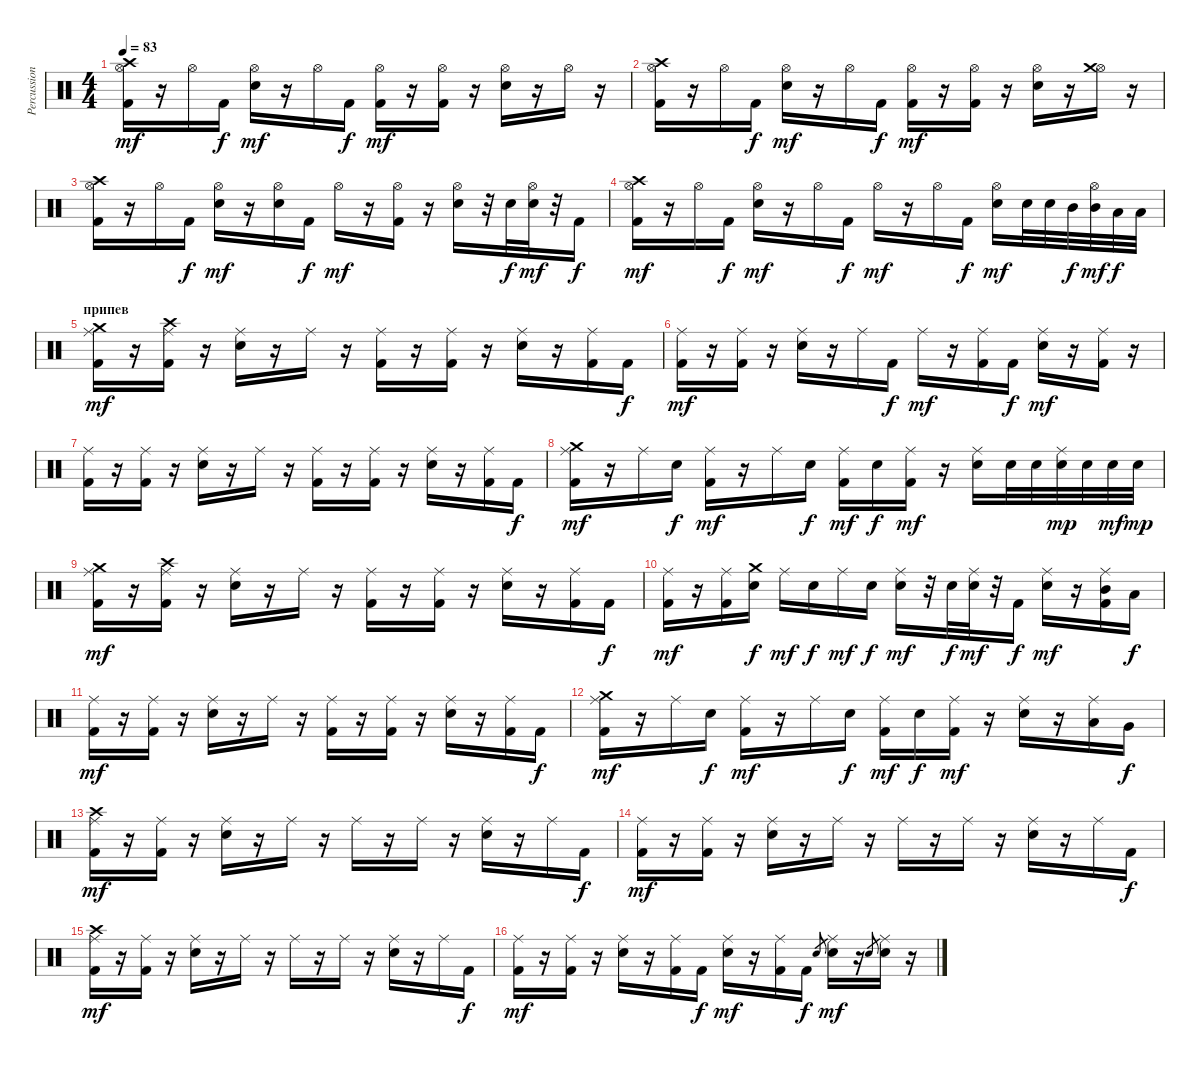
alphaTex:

\track ("Percussion" "Percussion") {instrument percussion}
\staff {score}
\articulation defaults
\ts (4 4)
\tempo 83
\clef neutral
\ks c
("Hi-Hat (open)" "Crash high (hit)" "Kick (hit) 2").16{dy mf} r.16 "Hi-Hat (open)".16 "Kick (hit) 2".16{dy f} ("Hi-Hat (open)" "Electric Snare (hit)").16{dy mf} r.16 "Hi-Hat (open)".16 "Kick (hit) 2".16{dy f} ("Hi-Hat (open)" "Kick (hit) 2").16{dy mf} r.16 ("Hi-Hat (open)" "Kick (hit) 2").16 r.16 ("Hi-Hat (open)" "Electric Snare (hit)").16 r.16 "Hi-Hat (open)".16 r.16 |
("Hi-Hat (open)" "Crash high (hit)" "Kick (hit) 2").16 r.16 "Hi-Hat (open)".16 "Kick (hit) 2".16{dy f} ("Hi-Hat (open)" "Electric Snare (hit)").16{dy mf} r.16 "Hi-Hat (open)".16 "Kick (hit) 2".16{dy f} ("Hi-Hat (open)" "Kick (hit) 2").16{dy mf} r.16 ("Hi-Hat (open)" "Kick (hit) 2").16 r.16 ("Hi-Hat (open)" "Electric Snare (hit)").16 r.16 ("Hi-Hat (open)" "Crash medium (hit)").16 r.16 |
("Hi-Hat (open)" "Crash high (hit)" "Kick (hit) 2").16 r.16 "Hi-Hat (open)".16 "Kick (hit) 2".16{dy f} ("Hi-Hat (open)" "Electric Snare (hit)").16{dy mf} r.16 ("Hi-Hat (open)" "Electric Snare (hit)").16 "Kick (hit) 2".16{dy f} "Hi-Hat (open)".16{dy mf} r.16 ("Hi-Hat (open)" "Kick (hit) 2").16 r.16 ("Hi-Hat (open)" "Electric Snare (hit)").16 r.32 "Electric Snare (hit)".32{dy f} ("Hi-Hat (open)" "Electric Snare (hit)").32{dy mf} r.32 "Kick (hit) 2".16{dy f} |
("Hi-Hat (open)" "Crash high (hit)" "Kick (hit) 2").16{dy mf} r.16 "Hi-Hat (open)".16 "Kick (hit) 2".16{dy f} ("Hi-Hat (open)" "Electric Snare (hit)").16{dy mf} r.16 "Hi-Hat (open)".16 "Kick (hit) 2".16{dy f} "Hi-Hat (open)".16{dy mf} r.16 "Hi-Hat (open)".16 "Kick (hit) 2".16{dy f} ("Hi-Hat (open)" "Electric Snare (hit)").16{dy mf} "Electric Snare (hit)".32 "Electric Snare (hit)".32 "Mid Tom (hit)".32{dy f} ("Hi-Hat (open)" "Mid Tom (hit)").32{dy mf} "Low Tom (hit)".32{dy f} "Low Tom (hit)".32 |
\section ("" "припев")
("Ride (middle)" "Crash medium (hit)" "Kick (hit) 2").16{dy mf} r.16 ("Ride (middle)" "Crash high (hit)" "Kick (hit) 2").16 r.16 ("Ride (middle)" "Electric Snare (hit)").16 r.16 "Ride (middle)".16 r.16 ("Ride (middle)" "Kick (hit) 2").16 r.16 ("Ride (middle)" "Kick (hit) 2").16 r.16 ("Ride (middle)" "Electric Snare (hit)").16 r.16 ("Ride (middle)" "Kick (hit) 2").16 "Kick (hit) 2".16{dy f} |
("Ride (middle)" "Kick (hit) 2").16{dy mf} r.16 ("Ride (middle)" "Kick (hit) 2").16 r.16 ("Ride (middle)" "Electric Snare (hit)").16 r.16 "Ride (middle)".16 "Kick (hit) 2".16{dy f} "Ride (middle)".16{dy mf} r.16 ("Ride (middle)" "Kick (hit) 2").16 "Kick (hit) 2".16{dy f} ("Ride (middle)" "Electric Snare (hit)").16{dy mf} r.16 ("Ride (middle)" "Kick (hit) 2").16 r.16 |
("Ride (middle)" "Kick (hit) 2").16 r.16 ("Ride (middle)" "Kick (hit) 2").16 r.16 ("Ride (middle)" "Electric Snare (hit)").16 r.16 "Ride (middle)".16 r.16 ("Ride (middle)" "Kick (hit) 2").16 r.16 ("Ride (middle)" "Kick (hit) 2").16 r.16 ("Ride (middle)" "Electric Snare (hit)").16 r.16 ("Ride (middle)" "Kick (hit) 2").16 "Kick (hit) 2".16{dy f} |
("Ride (middle)" "Crash medium (hit)" "Kick (hit) 2").16{dy mf} r.16 "Ride (middle)".16 "Electric Snare (hit)".16{dy f} ("Ride (middle)" "Kick (hit) 2").16{dy mf} r.16 "Ride (middle)".16 "Electric Snare (hit)".16{dy f} ("Ride (middle)" "Kick (hit) 2").16{dy mf} "Electric Snare (hit)".16{dy f} ("Ride (middle)" "Kick (hit) 2").16{dy mf} r.16 ("Ride (middle)" "Electric Snare (hit)").16 "Electric Snare (hit)".32 "Electric Snare (hit)".32 ("Ride (middle)" "Electric Snare (hit)").32{dy mp} "Electric Snare (hit)".32 "Electric Snare (hit)".32{dy mf} "Electric Snare (hit)".32{dy mp} |
("Ride (middle)" "Crash medium (hit)" "Kick (hit) 2").16{dy mf} r.16 ("Ride (middle)" "Crash high (hit)" "Kick (hit) 2").16 r.16 ("Ride (middle)" "Electric Snare (hit)").16 r.16 "Ride (middle)".16 r.16 ("Ride (middle)" "Kick (hit) 2").16 r.16 ("Ride (middle)" "Kick (hit) 2").16 r.16 ("Ride (middle)" "Electric Snare (hit)").16 r.16 ("Ride (middle)" "Kick (hit) 2").16 "Kick (hit) 2".16{dy f} |
("Ride (middle)" "Kick (hit) 2").16{dy mf} r.16 ("Ride (middle)" "Kick (hit) 2").16 ("Crash medium (hit)" "Electric Snare (hit)").16{dy f} "Ride (middle)".16{dy mf} "Electric Snare (hit)".16{dy f} "Ride (middle)".16{dy mf} "Electric Snare (hit)".16{dy f} ("Ride (middle)" "Electric Snare (hit)").16{dy mf} r.32 "Electric Snare (hit)".32{dy f} ("Ride (middle)" "Electric Snare (hit)").32{dy mf} r.32 "Kick (hit) 2".16{dy f} ("Ride (middle)" "Electric Snare (hit)").16{dy mf} r.16 ("Ride (middle)" "Mid Tom (hit)" "Kick (hit) 2").16 "Low Tom (hit)".16{dy f} |
("Ride (middle)" "Kick (hit) 2").16{dy mf} r.16 ("Ride (middle)" "Kick (hit) 2").16 r.16 ("Ride (middle)" "Electric Snare (hit)").16 r.16 "Ride (middle)".16 r.16 ("Ride (middle)" "Kick (hit) 2").16 r.16 ("Ride (middle)" "Kick (hit) 2").16 r.16 ("Ride (middle)" "Electric Snare (hit)").16 r.16 ("Ride (middle)" "Kick (hit) 2").16 "Kick (hit) 2".16{dy f} |
("Ride (middle)" "Crash medium (hit)" "Kick (hit) 2").16{dy mf} r.16 "Ride (middle)".16 "Electric Snare (hit)".16{dy f} ("Ride (middle)" "Kick (hit) 2").16{dy mf} r.16 "Ride (middle)".16 "Electric Snare (hit)".16{dy f} ("Ride (middle)" "Kick (hit) 2").16{dy mf} "Electric Snare (hit)".16{dy f} ("Ride (middle)" "Kick (hit) 2").16{dy mf} r.16 ("Ride (middle)" "Electric Snare (hit)").16 r.16 ("Ride (middle)" "Low Tom (hit)").16 "Very Low Tom (hit)".16{dy f} |
("Ride (middle)" "Crash high (hit)" "Kick (hit) 2").16{dy mf} r.16 ("Ride (middle)" "Kick (hit) 2").16 r.16 ("Ride (middle)" "Electric Snare (hit)").16 r.16 "Ride (middle)".16 r.16 "Ride (middle)".16 r.16 "Ride (middle)".16 r.16 ("Ride (middle)" "Electric Snare (hit)").16 r.16 "Ride (middle)".16 "Kick (hit) 2".16{dy f} |
("Ride (middle)" "Kick (hit) 2").16{dy mf} r.16 ("Ride (middle)" "Kick (hit) 2").16 r.16 ("Ride (middle)" "Electric Snare (hit)").16 r.16 "Ride (middle)".16 r.16 "Ride (middle)".16 r.16 "Ride (middle)".16 r.16 ("Ride (middle)" "Electric Snare (hit)").16 r.16 "Ride (middle)".16 "Kick (hit) 2".16{dy f} |
("Ride (middle)" "Crash high (hit)" "Kick (hit) 2").16{dy mf} r.16 ("Ride (middle)" "Kick (hit) 2").16 r.16 ("Ride (middle)" "Electric Snare (hit)").16 r.16 "Ride (middle)".16 r.16 "Ride (middle)".16 r.16 "Ride (middle)".16 r.16 ("Ride (middle)" "Electric Snare (hit)").16 r.16 "Ride (middle)".16 "Kick (hit) 2".16{dy f} |
("Ride (middle)" "Kick (hit) 2").16{dy mf} r.16 ("Ride (middle)" "Kick (hit) 2").16 r.16 ("Ride (middle)" "Electric Snare (hit)").16 r.16 ("Ride (middle)" "Kick (hit) 2").16 "Kick (hit) 2".16{dy f} ("Ride (middle)" "Electric Snare (hit)").16{dy mf} r.16 ("Ride (middle)" "Kick (hit) 2").16 "Kick (hit) 2".16{dy f} "Electric Snare (hit)".8{gr} ("Ride (middle)" "Electric Snare (hit)").16{dy mf} r.16 "Electric Snare (hit)".8{gr} ("Ride (middle)" "Electric Snare (hit)").16 r.16
